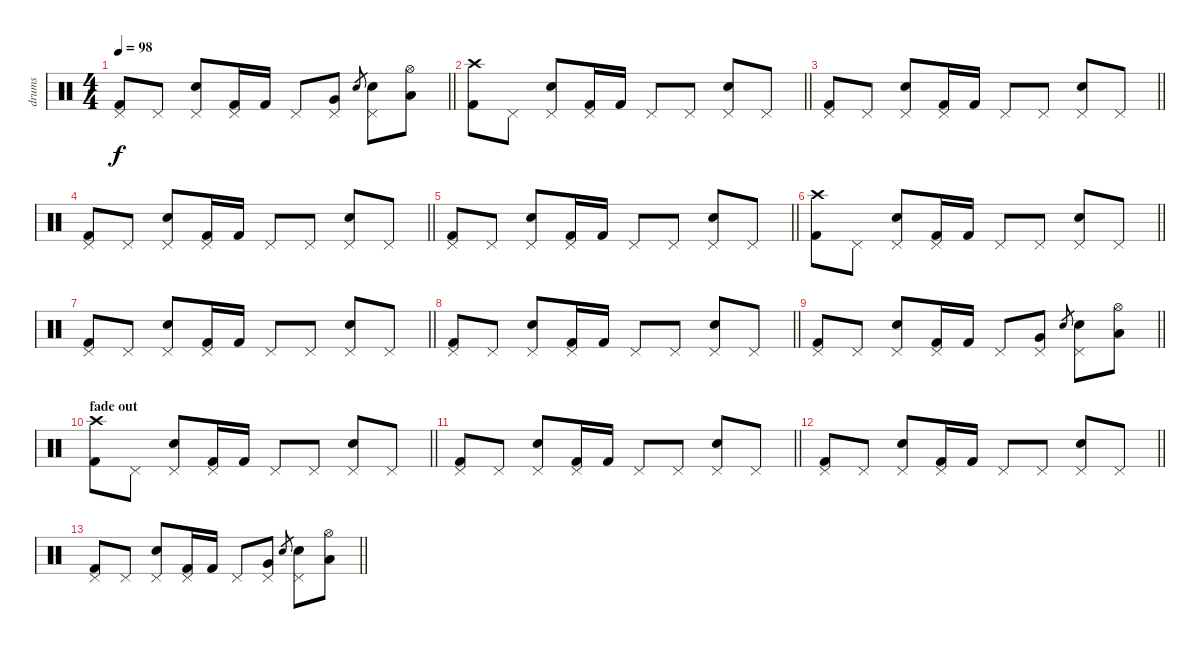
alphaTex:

\track ("drums" "drums") {instrument percussion}
\staff {score}
\articulation defaults
\ts (4 4)
\tempo 98
\clef neutral
\barLineRight lightlight
\ks c
("Kick (hit) 2" "Pedal Hi-Hat (hit)").8{dy f} "Pedal Hi-Hat (hit)".8 ("Electric Snare (hit)" "Pedal Hi-Hat (hit)").8 ("Kick (hit) 2" "Pedal Hi-Hat (hit)").16 "Kick (hit) 2".16 "Pedal Hi-Hat (hit)".8 ("Very Low Tom (hit)" "Pedal Hi-Hat (hit)").8 "Electric Snare (hit)".8{gr} ("Electric Snare (hit)" "Pedal Hi-Hat (hit)").8 ("Low Tom (hit)" "Hi-Hat (open)").8 |
\barLineRight lightlight
("Kick (hit) 2" "Crash high (hit)").8 "Pedal Hi-Hat (hit)".8 ("Electric Snare (hit)" "Pedal Hi-Hat (hit)").8 ("Kick (hit) 2" "Pedal Hi-Hat (hit)").16 "Kick (hit) 2".16 "Pedal Hi-Hat (hit)".8 "Pedal Hi-Hat (hit)".8 ("Electric Snare (hit)" "Pedal Hi-Hat (hit)").8 "Pedal Hi-Hat (hit)".8 |
\barLineRight lightlight
("Kick (hit) 2" "Pedal Hi-Hat (hit)").8 "Pedal Hi-Hat (hit)".8 ("Electric Snare (hit)" "Pedal Hi-Hat (hit)").8 ("Kick (hit) 2" "Pedal Hi-Hat (hit)").16 "Kick (hit) 2".16 "Pedal Hi-Hat (hit)".8 "Pedal Hi-Hat (hit)".8 ("Electric Snare (hit)" "Pedal Hi-Hat (hit)").8 "Pedal Hi-Hat (hit)".8 |
\barLineRight lightlight
("Kick (hit) 2" "Pedal Hi-Hat (hit)").8 "Pedal Hi-Hat (hit)".8 ("Electric Snare (hit)" "Pedal Hi-Hat (hit)").8 ("Kick (hit) 2" "Pedal Hi-Hat (hit)").16 "Kick (hit) 2".16 "Pedal Hi-Hat (hit)".8 "Pedal Hi-Hat (hit)".8 ("Electric Snare (hit)" "Pedal Hi-Hat (hit)").8 "Pedal Hi-Hat (hit)".8 |
\barLineRight lightlight
("Kick (hit) 2" "Pedal Hi-Hat (hit)").8 "Pedal Hi-Hat (hit)".8 ("Electric Snare (hit)" "Pedal Hi-Hat (hit)").8 ("Kick (hit) 2" "Pedal Hi-Hat (hit)").16 "Kick (hit) 2".16 "Pedal Hi-Hat (hit)".8 "Pedal Hi-Hat (hit)".8 ("Electric Snare (hit)" "Pedal Hi-Hat (hit)").8 "Pedal Hi-Hat (hit)".8 |
\barLineRight lightlight
("Kick (hit) 2" "Crash high (hit)").8 "Pedal Hi-Hat (hit)".8 ("Electric Snare (hit)" "Pedal Hi-Hat (hit)").8 ("Kick (hit) 2" "Pedal Hi-Hat (hit)").16 "Kick (hit) 2".16 "Pedal Hi-Hat (hit)".8 "Pedal Hi-Hat (hit)".8 ("Electric Snare (hit)" "Pedal Hi-Hat (hit)").8 "Pedal Hi-Hat (hit)".8 |
\barLineRight lightlight
("Kick (hit) 2" "Pedal Hi-Hat (hit)").8 "Pedal Hi-Hat (hit)".8 ("Electric Snare (hit)" "Pedal Hi-Hat (hit)").8 ("Kick (hit) 2" "Pedal Hi-Hat (hit)").16 "Kick (hit) 2".16 "Pedal Hi-Hat (hit)".8 "Pedal Hi-Hat (hit)".8 ("Electric Snare (hit)" "Pedal Hi-Hat (hit)").8 "Pedal Hi-Hat (hit)".8 |
\barLineRight lightlight
("Kick (hit) 2" "Pedal Hi-Hat (hit)").8 "Pedal Hi-Hat (hit)".8 ("Electric Snare (hit)" "Pedal Hi-Hat (hit)").8 ("Kick (hit) 2" "Pedal Hi-Hat (hit)").16 "Kick (hit) 2".16 "Pedal Hi-Hat (hit)".8 "Pedal Hi-Hat (hit)".8 ("Electric Snare (hit)" "Pedal Hi-Hat (hit)").8 "Pedal Hi-Hat (hit)".8 |
\barLineRight lightlight
("Kick (hit) 2" "Pedal Hi-Hat (hit)").8 "Pedal Hi-Hat (hit)".8 ("Electric Snare (hit)" "Pedal Hi-Hat (hit)").8 ("Kick (hit) 2" "Pedal Hi-Hat (hit)").16 "Kick (hit) 2".16 "Pedal Hi-Hat (hit)".8 ("Very Low Tom (hit)" "Pedal Hi-Hat (hit)").8 "Electric Snare (hit)".8{gr} ("Electric Snare (hit)" "Pedal Hi-Hat (hit)").8 ("Low Tom (hit)" "Hi-Hat (open)").8 |
\section ("" "fade out")
\barLineRight lightlight
("Kick (hit) 2" "Crash high (hit)").8 "Pedal Hi-Hat (hit)".8 ("Electric Snare (hit)" "Pedal Hi-Hat (hit)").8 ("Kick (hit) 2" "Pedal Hi-Hat (hit)").16 "Kick (hit) 2".16 "Pedal Hi-Hat (hit)".8 "Pedal Hi-Hat (hit)".8 ("Electric Snare (hit)" "Pedal Hi-Hat (hit)").8 "Pedal Hi-Hat (hit)".8 |
\barLineRight lightlight
("Kick (hit) 2" "Pedal Hi-Hat (hit)").8 "Pedal Hi-Hat (hit)".8 ("Electric Snare (hit)" "Pedal Hi-Hat (hit)").8 ("Kick (hit) 2" "Pedal Hi-Hat (hit)").16 "Kick (hit) 2".16 "Pedal Hi-Hat (hit)".8 "Pedal Hi-Hat (hit)".8 ("Electric Snare (hit)" "Pedal Hi-Hat (hit)").8 "Pedal Hi-Hat (hit)".8 |
\barLineRight lightlight
("Kick (hit) 2" "Pedal Hi-Hat (hit)").8 "Pedal Hi-Hat (hit)".8 ("Electric Snare (hit)" "Pedal Hi-Hat (hit)").8 ("Kick (hit) 2" "Pedal Hi-Hat (hit)").16 "Kick (hit) 2".16 "Pedal Hi-Hat (hit)".8 "Pedal Hi-Hat (hit)".8 ("Electric Snare (hit)" "Pedal Hi-Hat (hit)").8 "Pedal Hi-Hat (hit)".8 |
\barLineRight lightlight
("Kick (hit) 2" "Pedal Hi-Hat (hit)").8 "Pedal Hi-Hat (hit)".8 ("Electric Snare (hit)" "Pedal Hi-Hat (hit)").8 ("Kick (hit) 2" "Pedal Hi-Hat (hit)").16 "Kick (hit) 2".16 "Pedal Hi-Hat (hit)".8 ("Very Low Tom (hit)" "Pedal Hi-Hat (hit)").8 "Electric Snare (hit)".8{gr} ("Electric Snare (hit)" "Pedal Hi-Hat (hit)").8 ("Low Tom (hit)" "Hi-Hat (open)").8
